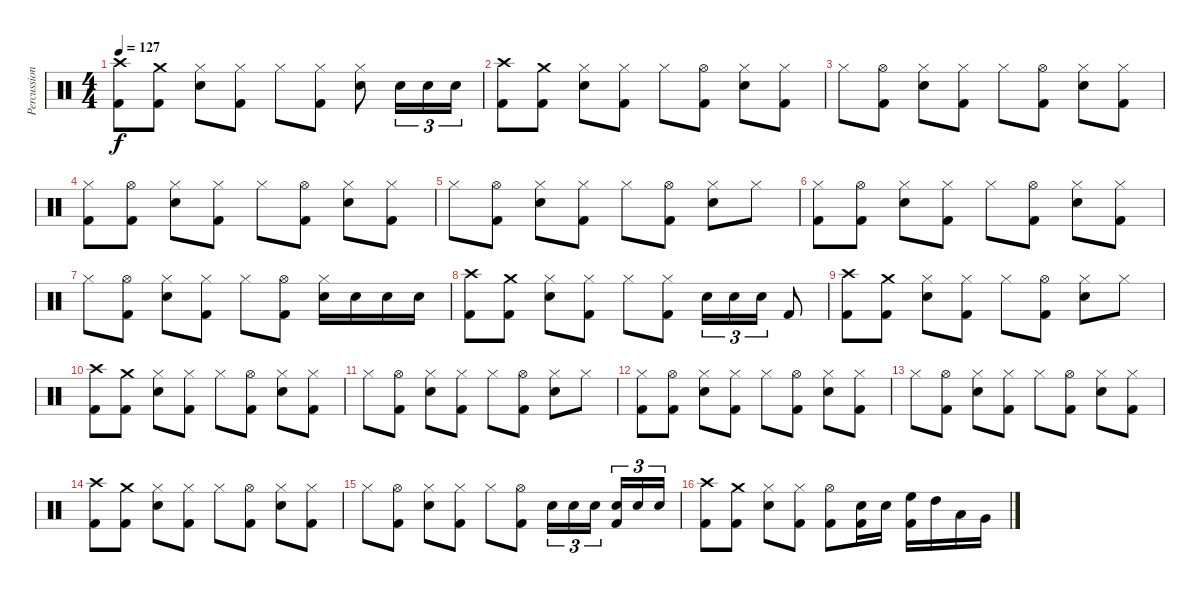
\track ("Percussion" "Percussion") {instrument percussion}
\staff {score}
\articulation defaults
\ts (4 4)
\tempo 127
\clef neutral
\ks c
("Kick (hit) 2" "Crash high (hit)").8{dy f} ("Kick (hit) 2" "Crash medium (hit)").8 ("Snare (hit) 2" "Hi-Hat (closed)").8 ("Kick (hit) 2" "Hi-Hat (closed)").8 "Hi-Hat (closed)".8 ("Kick (hit) 2" "Hi-Hat (closed)").8 ("Snare (hit) 2" "Hi-Hat (closed)").8 "Snare (hit) 2".16{tu (3 2)} "Snare (hit) 2".16{tu (3 2)} "Snare (hit) 2".16{tu (3 2)} |
("Kick (hit) 2" "Crash high (hit)").8 ("Kick (hit) 2" "Crash medium (hit)").8 ("Snare (hit) 2" "Hi-Hat (closed)").8 ("Kick (hit) 2" "Hi-Hat (closed)").8 "Hi-Hat (closed)".8 ("Kick (hit) 2" "Hi-Hat (open)").8 ("Snare (hit) 2" "Hi-Hat (closed)").8 ("Kick (hit) 2" "Hi-Hat (closed)").8 |
"Hi-Hat (closed)".8 ("Kick (hit) 2" "Hi-Hat (open)").8 ("Snare (hit) 2" "Hi-Hat (closed)").8 ("Kick (hit) 2" "Hi-Hat (closed)").8 "Hi-Hat (closed)".8 ("Kick (hit) 2" "Hi-Hat (open)").8 ("Snare (hit) 2" "Hi-Hat (closed)").8 ("Kick (hit) 2" "Hi-Hat (closed)").8 |
("Kick (hit) 2" "Hi-Hat (closed)").8 ("Kick (hit) 2" "Hi-Hat (open)").8 ("Snare (hit) 2" "Hi-Hat (closed)").8 ("Kick (hit) 2" "Hi-Hat (closed)").8 "Hi-Hat (closed)".8 ("Kick (hit) 2" "Hi-Hat (open)").8 ("Snare (hit) 2" "Hi-Hat (closed)").8 ("Kick (hit) 2" "Hi-Hat (closed)").8 |
"Hi-Hat (closed)".8 ("Kick (hit) 2" "Hi-Hat (open)").8 ("Snare (hit) 2" "Hi-Hat (closed)").8 ("Kick (hit) 2" "Hi-Hat (closed)").8 "Hi-Hat (closed)".8 ("Kick (hit) 2" "Hi-Hat (open)").8 ("Snare (hit) 2" "Hi-Hat (closed)").8 "Hi-Hat (closed)".8 |
("Kick (hit) 2" "Hi-Hat (closed)").8 ("Kick (hit) 2" "Hi-Hat (open)").8 ("Snare (hit) 2" "Hi-Hat (closed)").8 ("Kick (hit) 2" "Hi-Hat (closed)").8 "Hi-Hat (closed)".8 ("Kick (hit) 2" "Hi-Hat (open)").8 ("Snare (hit) 2" "Hi-Hat (closed)").8 ("Kick (hit) 2" "Hi-Hat (closed)").8 |
"Hi-Hat (closed)".8 ("Kick (hit) 2" "Hi-Hat (open)").8 ("Snare (hit) 2" "Hi-Hat (closed)").8 ("Kick (hit) 2" "Hi-Hat (closed)").8 "Hi-Hat (closed)".8 ("Kick (hit) 2" "Hi-Hat (open)").8 ("Snare (hit) 2" "Hi-Hat (closed)").16 "Snare (hit) 2".16 "Snare (hit) 2".16 "Snare (hit) 2".16 |
("Kick (hit) 2" "Crash high (hit)").8 ("Kick (hit) 2" "Crash medium (hit)").8 ("Snare (hit) 2" "Hi-Hat (closed)").8 ("Kick (hit) 2" "Hi-Hat (closed)").8 "Hi-Hat (closed)".8 ("Kick (hit) 2" "Hi-Hat (closed)").8 "Snare (hit) 2".16{tu (3 2)} "Snare (hit) 2".16{tu (3 2)} "Snare (hit) 2".16{tu (3 2)} "Kick (hit) 2".8 |
("Kick (hit) 2" "Crash high (hit)").8 ("Kick (hit) 2" "Crash medium (hit)").8 ("Snare (hit) 2" "Hi-Hat (closed)").8 ("Kick (hit) 2" "Hi-Hat (closed)").8 "Hi-Hat (closed)".8 ("Kick (hit) 2" "Hi-Hat (open)").8 ("Snare (hit) 2" "Hi-Hat (closed)").8 "Hi-Hat (closed)".8 |
("Kick (hit) 2" "Crash high (hit)").8 ("Kick (hit) 2" "Crash medium (hit)").8 ("Snare (hit) 2" "Hi-Hat (closed)").8 ("Kick (hit) 2" "Hi-Hat (closed)").8 "Hi-Hat (closed)".8 ("Kick (hit) 2" "Hi-Hat (open)").8 ("Snare (hit) 2" "Hi-Hat (closed)").8 ("Kick (hit) 2" "Hi-Hat (closed)").8 |
"Hi-Hat (closed)".8 ("Kick (hit) 2" "Hi-Hat (open)").8 ("Snare (hit) 2" "Hi-Hat (closed)").8 ("Kick (hit) 2" "Hi-Hat (closed)").8 "Hi-Hat (closed)".8 ("Kick (hit) 2" "Hi-Hat (open)").8 ("Snare (hit) 2" "Hi-Hat (closed)").8 "Hi-Hat (closed)".8 |
("Kick (hit) 2" "Hi-Hat (closed)").8 ("Kick (hit) 2" "Hi-Hat (open)").8 ("Snare (hit) 2" "Hi-Hat (closed)").8 ("Kick (hit) 2" "Hi-Hat (closed)").8 "Hi-Hat (closed)".8 ("Kick (hit) 2" "Hi-Hat (open)").8 ("Snare (hit) 2" "Hi-Hat (closed)").8 ("Kick (hit) 2" "Hi-Hat (closed)").8 |
"Hi-Hat (closed)".8 ("Kick (hit) 2" "Hi-Hat (open)").8 ("Snare (hit) 2" "Hi-Hat (closed)").8 ("Kick (hit) 2" "Hi-Hat (closed)").8 "Hi-Hat (closed)".8 ("Kick (hit) 2" "Hi-Hat (open)").8 ("Snare (hit) 2" "Hi-Hat (closed)").8 ("Kick (hit) 2" "Hi-Hat (closed)").8 |
("Kick (hit) 2" "Crash high (hit)").8 ("Kick (hit) 2" "Crash medium (hit)").8 ("Snare (hit) 2" "Hi-Hat (closed)").8 ("Kick (hit) 2" "Hi-Hat (closed)").8 "Hi-Hat (closed)".8 ("Kick (hit) 2" "Hi-Hat (open)").8 ("Snare (hit) 2" "Hi-Hat (closed)").8 ("Kick (hit) 2" "Hi-Hat (closed)").8 |
"Hi-Hat (closed)".8 ("Kick (hit) 2" "Hi-Hat (open)").8 ("Snare (hit) 2" "Hi-Hat (closed)").8 ("Kick (hit) 2" "Hi-Hat (closed)").8 "Hi-Hat (closed)".8 ("Kick (hit) 2" "Hi-Hat (open)").8 "Snare (hit) 2".16{tu (3 2)} "Snare (hit) 2".16{tu (3 2)} "Snare (hit) 2".16{tu (3 2)} ("Snare (hit) 2" "Kick (hit) 2").16{tu (3 2)} "Snare (hit) 2".16{tu (3 2)} "Snare (hit) 2".16{tu (3 2)} |
("Kick (hit) 2" "Crash high (hit)").8 ("Kick (hit) 2" "Crash medium (hit)").8 ("Snare (hit) 2" "Hi-Hat (closed)").8 ("Kick (hit) 2" "Hi-Hat (closed)").8 ("Kick (hit) 2" "Hi-Hat (open)").8 ("Snare (hit) 2" "Kick (hit) 2").16 "Snare (hit) 2".16 ("Kick (hit) 2" "High Floor Tom (hit)").16 "High Tom (hit)".16 "Low Tom (hit)".16 "Very Low Tom (hit)".16
